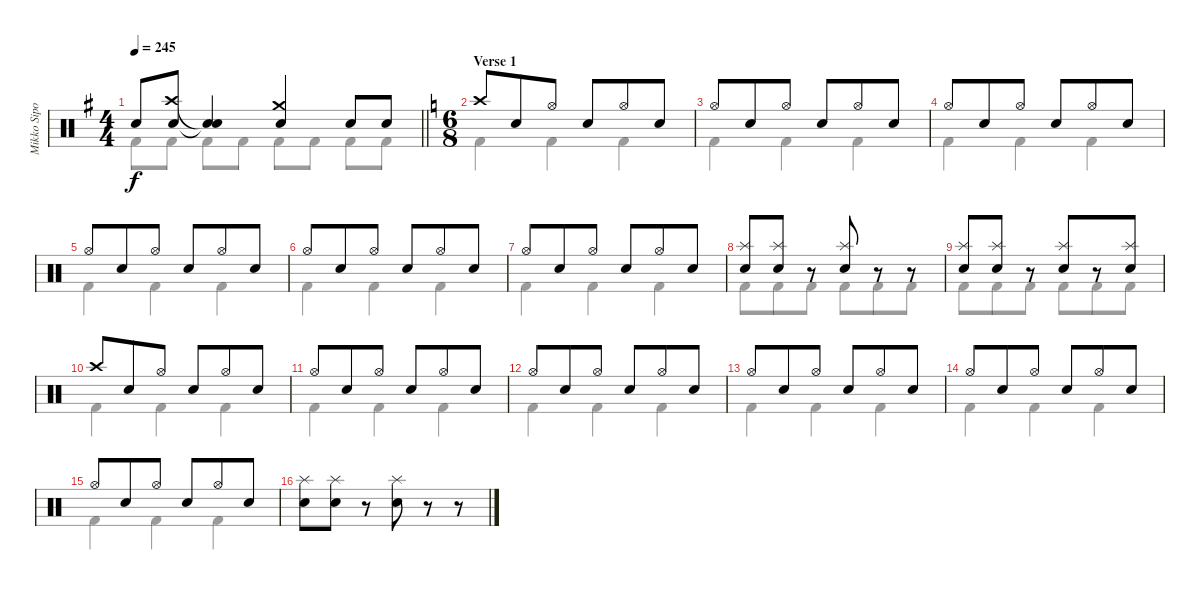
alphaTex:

\track ("Mikko Sipola (drums)" "Mikko Sipo") {instrument percussion}
\staff {score}
\articulation defaults
\voice
\ts (4 4)
\tempo 245
\clef neutral
\barLineRight lightlight
\ks eminor "Snare (hit)"{t}.8{dy f}
("Crash high (hit)" "Electric Snare (hit)").8 ("Snare (hit)"{t} "Snare (hit)"{t}).4 ("Crash medium (hit)" "Electric Snare (hit)").4 "Electric Snare (hit)".8 "Electric Snare (hit)".8 |
\ts (6 8)
\section ("" "Verse 1")
\ks aminor "Crash high (hit)".8 "Electric Snare (hit)".8 "Hi-Hat (open)".8 "Electric Snare (hit)".8 "Hi-Hat (open)".8 "Electric Snare (hit)".8
|
"Hi-Hat (open)".8 "Electric Snare (hit)".8 "Hi-Hat (open)".8 "Electric Snare (hit)".8 "Hi-Hat (open)".8 "Electric Snare (hit)".8 |
"Hi-Hat (open)".8 "Electric Snare (hit)".8 "Hi-Hat (open)".8 "Electric Snare (hit)".8 "Hi-Hat (open)".8 "Electric Snare (hit)".8 |
"Hi-Hat (open)".8 "Electric Snare (hit)".8 "Hi-Hat (open)".8 "Electric Snare (hit)".8 "Hi-Hat (open)".8 "Electric Snare (hit)".8 |
"Hi-Hat (open)".8 "Electric Snare (hit)".8 "Hi-Hat (open)".8 "Electric Snare (hit)".8 "Hi-Hat (open)".8 "Electric Snare (hit)".8 |
"Hi-Hat (open)".8 "Electric Snare (hit)".8 "Hi-Hat (open)".8 "Electric Snare (hit)".8 "Hi-Hat (open)".8 "Electric Snare (hit)".8 |
("Splash (hit)" "Electric Snare (hit)").8 ("Splash (hit)" "Electric Snare (hit)").8 r.8 ("Splash (hit)" "Electric Snare (hit)").8 r.8 r.8 |
("Splash (hit)" "Electric Snare (hit)").8 ("Splash (hit)" "Electric Snare (hit)").8 r.8 ("Splash (hit)" "Electric Snare (hit)").8 r.8 ("Splash (hit)" "Electric Snare (hit)").8 |
"Crash high (hit)".8 "Electric Snare (hit)".8 "Hi-Hat (open)".8 "Electric Snare (hit)".8 "Hi-Hat (open)".8 "Electric Snare (hit)".8 |
"Hi-Hat (open)".8 "Electric Snare (hit)".8 "Hi-Hat (open)".8 "Electric Snare (hit)".8 "Hi-Hat (open)".8 "Electric Snare (hit)".8 |
"Hi-Hat (open)".8 "Electric Snare (hit)".8 "Hi-Hat (open)".8 "Electric Snare (hit)".8 "Hi-Hat (open)".8 "Electric Snare (hit)".8 |
"Hi-Hat (open)".8 "Electric Snare (hit)".8 "Hi-Hat (open)".8 "Electric Snare (hit)".8 "Hi-Hat (open)".8 "Electric Snare (hit)".8 |
"Hi-Hat (open)".8 "Electric Snare (hit)".8 "Hi-Hat (open)".8 "Electric Snare (hit)".8 "Hi-Hat (open)".8 "Electric Snare (hit)".8 |
"Hi-Hat (open)".8 "Electric Snare (hit)".8 "Hi-Hat (open)".8 "Electric Snare (hit)".8 "Hi-Hat (open)".8 "Electric Snare (hit)".8 |
("Splash (hit)" "Electric Snare (hit)").8 ("Splash (hit)" "Electric Snare (hit)").8 r.8 ("Splash (hit)" "Electric Snare (hit)").8 r.8 r.8
\voice
\clef neutral
\ottava regular
\simile none
\barLineRight lightlight
\ks eminor "Kick (hit) 2".8{dy f} "Kick (hit) 2".8 "Kick (hit) 2".8 "Kick (hit) 2".8 "Kick (hit) 2".8 "Kick (hit) 2".8 "Kick (hit) 2".8 "Kick (hit) 2".8
|
\ks aminor "Kick (hit) 2".4 "Kick (hit) 2".4 "Kick (hit) 2".4
|
"Kick (hit) 2".4 "Kick (hit) 2".4 "Kick (hit) 2".4 |
"Kick (hit) 2".4 "Kick (hit) 2".4 "Kick (hit) 2".4 |
"Kick (hit) 2".4 "Kick (hit) 2".4 "Kick (hit) 2".4 |
"Kick (hit) 2".4 "Kick (hit) 2".4 "Kick (hit) 2".4 |
"Kick (hit) 2".4 "Kick (hit) 2".4 "Kick (hit) 2".4 |
"Kick (hit) 2".8 "Kick (hit) 2".8 "Kick (hit) 2".8 "Kick (hit) 2".8 "Kick (hit) 2".8 "Kick (hit) 2".8 |
"Kick (hit) 2".8 "Kick (hit) 2".8 "Kick (hit) 2".8 "Kick (hit) 2".8 "Kick (hit) 2".8 "Kick (hit) 2".8 |
"Kick (hit) 2".4 "Kick (hit) 2".4 "Kick (hit) 2".4 |
"Kick (hit) 2".4 "Kick (hit) 2".4 "Kick (hit) 2".4 |
"Kick (hit) 2".4 "Kick (hit) 2".4 "Kick (hit) 2".4 |
"Kick (hit) 2".4 "Kick (hit) 2".4 "Kick (hit) 2".4 |
"Kick (hit) 2".4 "Kick (hit) 2".4 "Kick (hit) 2".4 |
"Kick (hit) 2".4 "Kick (hit) 2".4 "Kick (hit) 2".4 |
